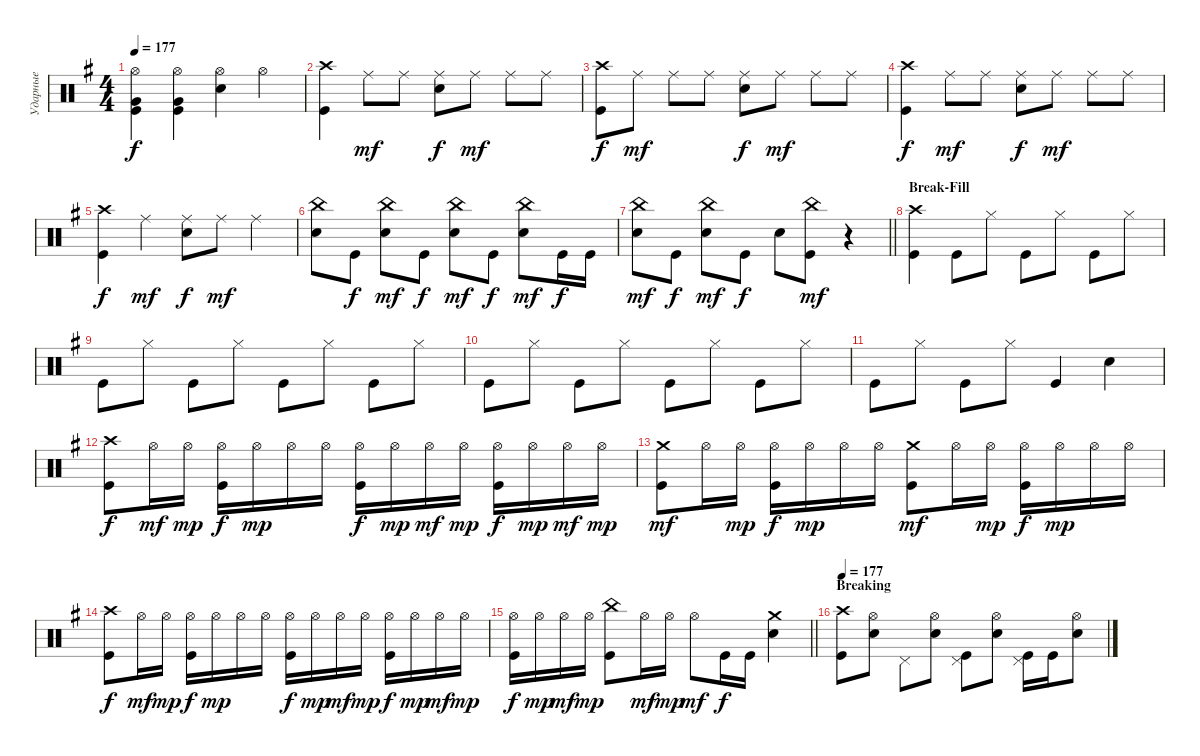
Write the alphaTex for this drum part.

\track ("Ударные" "Ударные") {instrument percussion}
\staff {score}
\articulation defaults
\ts (4 4)
\tempo 177
\clef neutral
\ks eminor
("Hi-Hat (open)" "Kick (hit)" "Very Low Tom (hit)").4{dy f} ("Hi-Hat (open)" "Kick (hit)" "Very Low Tom (hit)").4 ("Hi-Hat (open)" "Snare (hit) 2").4 "Hi-Hat (open)".4 |
("Crash high (hit)" "Kick (hit)").4 "Ride (middle)".8{dy mf} "Ride (middle)".8 ("Ride (middle)" "Snare (hit) 2").8{dy f} "Ride (middle)".8{dy mf} "Ride (middle)".8 "Ride (middle)".8 |
("Crash high (hit)" "Kick (hit)").8{dy f} "Ride (middle)".8{dy mf} "Ride (middle)".8 "Ride (middle)".8 ("Ride (middle)" "Snare (hit) 2").8{dy f} "Ride (middle)".8{dy mf} "Ride (middle)".8 "Ride (middle)".8 |
("Crash high (hit)" "Kick (hit)").4{dy f} "Ride (middle)".8{dy mf} "Ride (middle)".8 ("Ride (middle)" "Snare (hit) 2").8{dy f} "Ride (middle)".8{dy mf} "Ride (middle)".8 "Ride (middle)".8 |
("Crash high (hit)" "Kick (hit)").4{dy f} "Ride (middle)".4{dy mf} ("Ride (middle)" "Snare (hit) 2").8{dy f} "Ride (middle)".8{dy mf} "Ride (middle)".4 |
("Snare (hit) 2" "China (hit)").8 "Kick (hit)".8{dy f} ("Snare (hit) 2" "China (hit)").8{dy mf} "Kick (hit)".8{dy f} ("Snare (hit) 2" "China (hit)").8{dy mf} "Kick (hit)".8{dy f} ("Snare (hit) 2" "China (hit)").8{dy mf} "Kick (hit)".16{dy f} "Kick (hit)".16 |
\barLineRight lightlight
("Snare (hit) 2" "China (hit)").8{dy mf} "Kick (hit)".8{dy f} ("Snare (hit) 2" "China (hit)").8{dy mf} "Kick (hit)".8{dy f} "Snare (hit) 2".8 ("Kick (hit)" "China (hit)").8{dy mf} r.4 |
\section ("" "Break-Fill")
("Kick (hit)" "Crash high (hit)").4 "Kick (hit)".8 "Hi-Hat (closed)".8 "Kick (hit)".8 "Hi-Hat (closed)".8 "Kick (hit)".8 "Hi-Hat (closed)".8 |
"Kick (hit)".8 "Hi-Hat (closed)".8 "Kick (hit)".8 "Hi-Hat (closed)".8 "Kick (hit)".8 "Hi-Hat (closed)".8 "Kick (hit)".8 "Hi-Hat (closed)".8 |
"Kick (hit)".8 "Hi-Hat (closed)".8 "Kick (hit)".8 "Hi-Hat (closed)".8 "Kick (hit)".8 "Hi-Hat (closed)".8 "Kick (hit)".8 "Hi-Hat (closed)".8 |
"Kick (hit)".8 "Hi-Hat (closed)".8 "Kick (hit)".8 "Hi-Hat (closed)".8 "Kick (hit)".4 "Snare (hit) 2".4 |
("Kick (hit)" "Crash high (hit)").8{dy f} "Hi-Hat (open)".16{dy mf} "Hi-Hat (open)".16{dy mp} ("Hi-Hat (open)" "Kick (hit)").16{dy f} "Hi-Hat (open)".16{dy mp} "Hi-Hat (open)".16 "Hi-Hat (open)".16 ("Hi-Hat (open)" "Kick (hit)").16{dy f} "Hi-Hat (open)".16{dy mp} "Hi-Hat (open)".16{dy mf} "Hi-Hat (open)".16{dy mp} ("Hi-Hat (open)" "Kick (hit)").16{dy f} "Hi-Hat (open)".16{dy mp} "Hi-Hat (open)".16{dy mf} "Hi-Hat (open)".16{dy mp} |
("Kick (hit)" "Crash medium (hit)").8{dy mf} "Hi-Hat (open)".16 "Hi-Hat (open)".16{dy mp} ("Hi-Hat (open)" "Kick (hit)").16{dy f} "Hi-Hat (open)".16{dy mp} "Hi-Hat (open)".16 "Hi-Hat (open)".16 ("Kick (hit)" "Crash medium (hit)").8{dy mf} "Hi-Hat (open)".16 "Hi-Hat (open)".16{dy mp} ("Hi-Hat (open)" "Kick (hit)").16{dy f} "Hi-Hat (open)".16{dy mp} "Hi-Hat (open)".16 "Hi-Hat (open)".16 |
("Kick (hit)" "Crash high (hit)").8{dy f} "Hi-Hat (open)".16{dy mf} "Hi-Hat (open)".16{dy mp} ("Hi-Hat (open)" "Kick (hit)").16{dy f} "Hi-Hat (open)".16{dy mp} "Hi-Hat (open)".16 "Hi-Hat (open)".16 ("Hi-Hat (open)" "Kick (hit)").16{dy f} "Hi-Hat (open)".16{dy mp} "Hi-Hat (open)".16{dy mf} "Hi-Hat (open)".16{dy mp} ("Hi-Hat (open)" "Kick (hit)").16{dy f} "Hi-Hat (open)".16{dy mp} "Hi-Hat (open)".16{dy mf} "Hi-Hat (open)".16{dy mp} |
\barLineRight lightlight
("Hi-Hat (open)" "Kick (hit)").16{dy f} "Hi-Hat (open)".16{dy mp} "Hi-Hat (open)".16{dy mf} "Hi-Hat (open)".16{dy mp} ("Kick (hit)" "China (hit)").8 "Hi-Hat (open)".16{dy mf} "Hi-Hat (open)".16{dy mp} "Hi-Hat (open)".8{dy mf} "Kick (hit)".16{dy f} "Kick (hit)".16 ("Snare (hit) 2" "Crash medium (hit)").4 |
\section ("" "Breaking")
\tempo 177
("Kick (hit)" "Crash high (hit)").8 ("Hi-Hat (open)" "Snare (hit) 2").8 "Pedal Hi-Hat (hit)".8 ("Snare (hit) 2" "Hi-Hat (open)").8 ("Kick (hit)" "Pedal Hi-Hat (hit)").8 ("Hi-Hat (open)" "Snare (hit) 2").8 ("Kick (hit)" "Pedal Hi-Hat (hit)").16 "Kick (hit)".16 ("Snare (hit) 2" "Hi-Hat (open)").8
